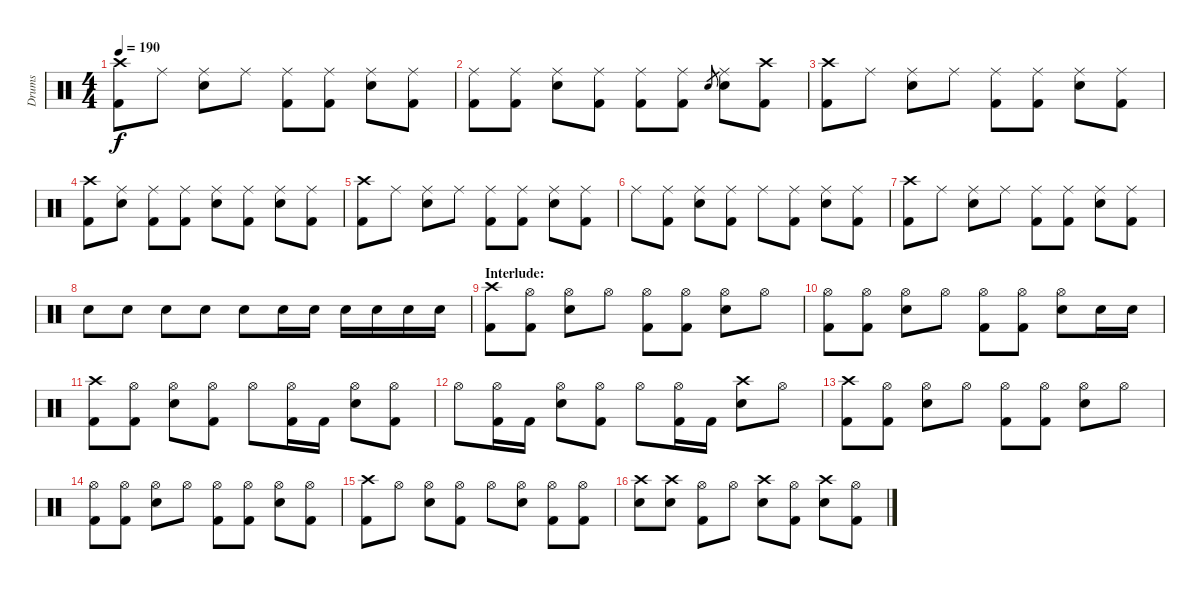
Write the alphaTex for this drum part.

\track ("Drums" "Drums") {instrument percussion}
\staff {score}
\articulation defaults
\ts (4 4)
\tempo 190
\clef neutral
\ks c
("Crash high (hit)" "Kick (hit) 2").8{dy f} "Ride (middle)".8 ("Ride (middle)" "Electric Snare (hit)").8 "Ride (middle)".8 ("Ride (middle)" "Kick (hit) 2").8 ("Ride (middle)" "Kick (hit) 2").8 ("Ride (middle)" "Electric Snare (hit)").8 ("Ride (middle)" "Kick (hit) 2").8 |
("Ride (middle)" "Kick (hit) 2").8 ("Ride (middle)" "Kick (hit) 2").8 ("Ride (middle)" "Electric Snare (hit)").8 ("Ride (middle)" "Kick (hit) 2").8 ("Ride (middle)" "Kick (hit) 2").8 ("Ride (middle)" "Kick (hit) 2").8 "Electric Snare (hit)".8{gr} ("Ride (middle)" "Electric Snare (hit)").8 ("Crash high (hit)" "Kick (hit) 2").8 |
("Crash high (hit)" "Kick (hit) 2").8 "Ride (middle)".8 ("Ride (middle)" "Electric Snare (hit)").8 "Ride (middle)".8 ("Ride (middle)" "Kick (hit) 2").8 ("Ride (middle)" "Kick (hit) 2").8 ("Ride (middle)" "Electric Snare (hit)").8 ("Ride (middle)" "Kick (hit) 2").8 |
("Crash high (hit)" "Kick (hit) 2").8 ("Ride (middle)" "Electric Snare (hit)").8 ("Ride (middle)" "Kick (hit) 2").8 ("Ride (middle)" "Kick (hit) 2").8 ("Ride (middle)" "Electric Snare (hit)").8 ("Ride (middle)" "Kick (hit) 2").8 ("Ride (middle)" "Electric Snare (hit)").8 ("Ride (middle)" "Kick (hit) 2").8 |
("Crash high (hit)" "Kick (hit) 2").8 "Ride (middle)".8 ("Ride (middle)" "Electric Snare (hit)").8 "Ride (middle)".8 ("Ride (middle)" "Kick (hit) 2").8 ("Ride (middle)" "Kick (hit) 2").8 ("Ride (middle)" "Electric Snare (hit)").8 ("Ride (middle)" "Kick (hit) 2").8 |
"Ride (middle)".8 ("Ride (middle)" "Kick (hit) 2").8 ("Ride (middle)" "Electric Snare (hit)").8 ("Ride (middle)" "Kick (hit) 2").8 "Ride (middle)".8 ("Ride (middle)" "Kick (hit) 2").8 ("Ride (middle)" "Electric Snare (hit)").8 ("Ride (middle)" "Kick (hit) 2").8 |
("Crash high (hit)" "Kick (hit) 2").8 "Ride (middle)".8 ("Ride (middle)" "Electric Snare (hit)").8 "Ride (middle)".8 ("Ride (middle)" "Kick (hit) 2").8 ("Ride (middle)" "Kick (hit) 2").8 ("Ride (middle)" "Electric Snare (hit)").8 ("Ride (middle)" "Kick (hit) 2").8 |
"Electric Snare (hit)".8 "Electric Snare (hit)".8 "Electric Snare (hit)".8 "Electric Snare (hit)".8 "Electric Snare (hit)".8 "Electric Snare (hit)".16 "Electric Snare (hit)".16 "Electric Snare (hit)".16 "Electric Snare (hit)".16 "Electric Snare (hit)".16 "Electric Snare (hit)".16 |
\section ("" "Interlude:")
("Crash high (hit)" "Kick (hit) 2").8 ("Hi-Hat (open)" "Kick (hit) 2").8 ("Hi-Hat (open)" "Electric Snare (hit)").8 "Hi-Hat (open)".8 ("Hi-Hat (open)" "Kick (hit) 2").8 ("Hi-Hat (open)" "Kick (hit) 2").8 ("Hi-Hat (open)" "Electric Snare (hit)").8 "Hi-Hat (open)".8 |
("Hi-Hat (open)" "Kick (hit) 2").8 ("Hi-Hat (open)" "Kick (hit) 2").8 ("Hi-Hat (open)" "Electric Snare (hit)").8 "Hi-Hat (open)".8 ("Hi-Hat (open)" "Kick (hit) 2").8 ("Hi-Hat (open)" "Kick (hit) 2").8 ("Hi-Hat (open)" "Electric Snare (hit)").8 "Electric Snare (hit)".16 "Electric Snare (hit)".16 |
("Crash high (hit)" "Kick (hit) 2").8 ("Hi-Hat (open)" "Kick (hit) 2").8 ("Hi-Hat (open)" "Electric Snare (hit)").8 ("Hi-Hat (open)" "Kick (hit) 2").8 "Hi-Hat (open)".8 ("Hi-Hat (open)" "Kick (hit) 2").16 "Kick (hit) 2".16 ("Hi-Hat (open)" "Electric Snare (hit)").8 ("Hi-Hat (open)" "Kick (hit) 2").8 |
"Hi-Hat (open)".8 ("Hi-Hat (open)" "Kick (hit) 2").16 "Kick (hit) 2".16 ("Hi-Hat (open)" "Electric Snare (hit)").8 ("Hi-Hat (open)" "Kick (hit) 2").8 "Hi-Hat (open)".8 ("Hi-Hat (open)" "Kick (hit) 2").16 "Kick (hit) 2".16 ("Crash high (hit)" "Electric Snare (hit)").8 "Hi-Hat (open)".8 |
("Crash high (hit)" "Kick (hit) 2").8 ("Hi-Hat (open)" "Kick (hit) 2").8 ("Hi-Hat (open)" "Electric Snare (hit)").8 "Hi-Hat (open)".8 ("Hi-Hat (open)" "Kick (hit) 2").8 ("Hi-Hat (open)" "Kick (hit) 2").8 ("Hi-Hat (open)" "Electric Snare (hit)").8 "Hi-Hat (open)".8 |
("Hi-Hat (open)" "Kick (hit) 2").8 ("Hi-Hat (open)" "Kick (hit) 2").8 ("Hi-Hat (open)" "Electric Snare (hit)").8 "Hi-Hat (open)".8 ("Hi-Hat (open)" "Kick (hit) 2").8 ("Hi-Hat (open)" "Kick (hit) 2").8 ("Hi-Hat (open)" "Electric Snare (hit)").8 ("Hi-Hat (open)" "Kick (hit) 2").8 |
("Crash high (hit)" "Kick (hit) 2").8 "Hi-Hat (open)".8 ("Hi-Hat (open)" "Electric Snare (hit)").8 ("Hi-Hat (open)" "Kick (hit) 2").8 "Hi-Hat (open)".8 ("Hi-Hat (open)" "Electric Snare (hit)").8 ("Hi-Hat (open)" "Kick (hit) 2").8 ("Hi-Hat (open)" "Kick (hit) 2").8 |
("Crash high (hit)" "Electric Snare (hit)").8 ("Crash high (hit)" "Electric Snare (hit)").8 ("Hi-Hat (open)" "Kick (hit) 2").8 "Hi-Hat (open)".8 ("Crash high (hit)" "Electric Snare (hit)").8 ("Hi-Hat (open)" "Kick (hit) 2").8 ("Crash high (hit)" "Electric Snare (hit)").8 ("Hi-Hat (open)" "Kick (hit) 2").8
